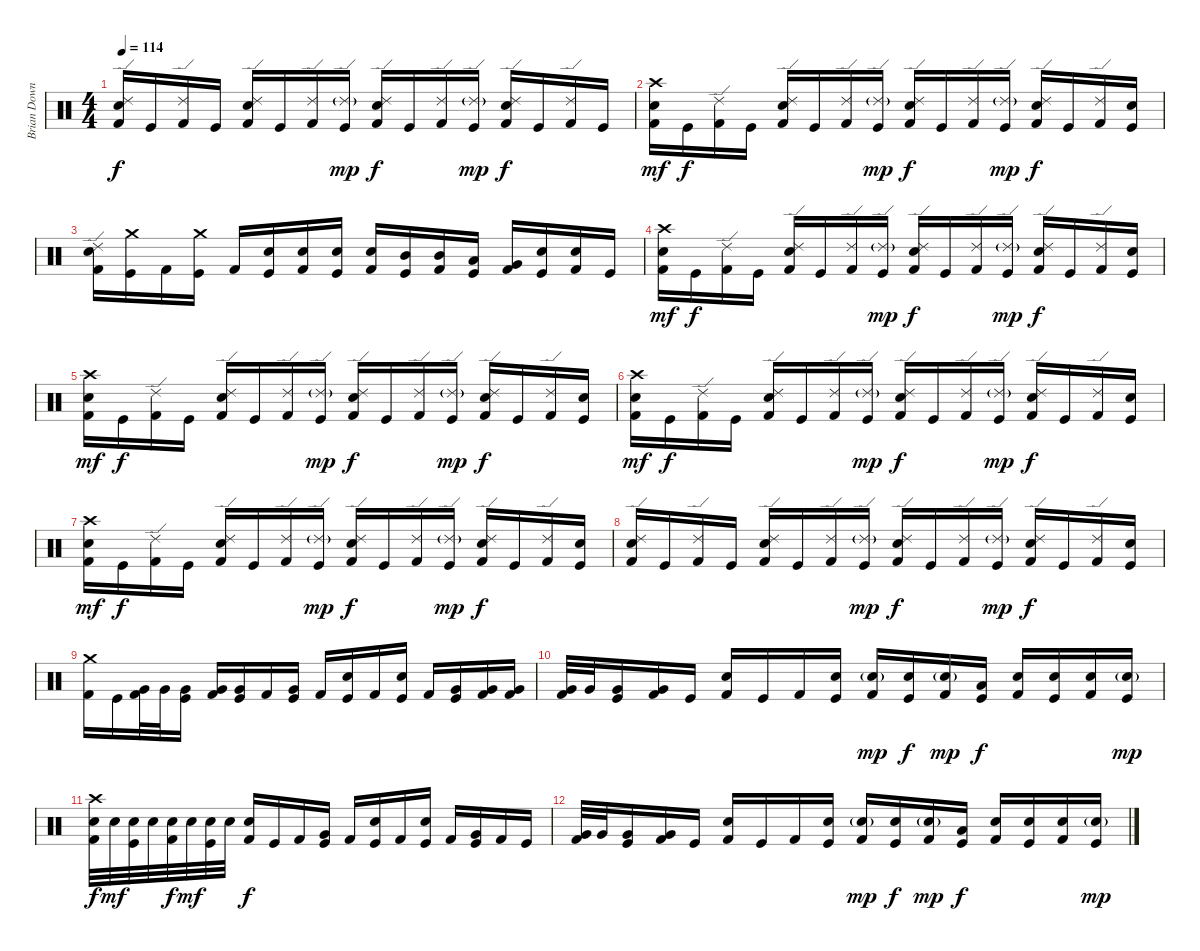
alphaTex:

\track ("Brian Downey" "Brian Down") {instrument percussion}
\staff {score}
\articulation defaults
\ts (4 4)
\tempo 114
\clef neutral
\ks c
("Ride (edge) 2" "Electric Snare (hit)" "Kick (hit) 2").16{dy f} "Kick (hit)".16 ("Ride (edge) 2" "Kick (hit) 2").16 "Kick (hit)".16 ("Ride (edge) 2" "Electric Snare (hit)" "Kick (hit) 2").16 "Kick (hit)".16 ("Ride (edge) 2" "Kick (hit) 2").16 ("Ride (edge) 2"{g} "Kick (hit)").16{dy mp} ("Ride (edge) 2" "Electric Snare (hit)" "Kick (hit) 2").16{dy f} "Kick (hit)".16 ("Ride (edge) 2" "Kick (hit) 2").16 ("Ride (edge) 2"{g} "Kick (hit)").16{dy mp} ("Ride (edge) 2" "Electric Snare (hit)" "Kick (hit) 2").16{dy f} "Kick (hit)".16 ("Ride (edge) 2" "Kick (hit) 2").16 "Kick (hit)".16 |
("Crash high (hit)" "Electric Snare (hit)" "Kick (hit) 2").16{dy mf} "Kick (hit)".16{dy f} ("Ride (edge) 2" "Kick (hit) 2").16 "Kick (hit)".16 ("Ride (edge) 2" "Electric Snare (hit)" "Kick (hit) 2").16 "Kick (hit)".16 ("Ride (edge) 2" "Kick (hit) 2").16 ("Ride (edge) 2"{g} "Kick (hit)").16{dy mp} ("Ride (edge) 2" "Electric Snare (hit)" "Kick (hit) 2").16{dy f} "Kick (hit)".16 ("Ride (edge) 2" "Kick (hit) 2").16 ("Ride (edge) 2"{g} "Kick (hit)").16{dy mp} ("Ride (edge) 2" "Electric Snare (hit)" "Kick (hit) 2").16{dy f} "Kick (hit)".16 ("Ride (edge) 2" "Kick (hit) 2").16 ("Electric Snare (hit)" "Kick (hit)").16 |
("Ride (edge) 2" "Electric Snare (hit)" "Kick (hit) 2").16 ("Crash medium (hit)" "Kick (hit)").16 "Kick (hit) 2".16 ("Crash medium (hit)" "Kick (hit)").16 "Kick (hit) 2".16 ("Electric Snare (hit)" "Kick (hit)").16 ("Electric Snare (hit)" "Kick (hit) 2").16 ("Electric Snare (hit)" "Kick (hit)").16 ("Electric Snare (hit)" "Kick (hit) 2").16 ("Mid Tom (hit)" "Kick (hit)").16 ("Mid Tom (hit)" "Kick (hit) 2").16 ("Low Tom (hit)" "Kick (hit)").16 ("Very Low Tom (hit)" "Kick (hit) 2").16 ("Electric Snare (hit)" "Kick (hit)").16 ("Electric Snare (hit)" "Kick (hit) 2").16 "Kick (hit)".16 |
("Crash high (hit)" "Electric Snare (hit)" "Kick (hit) 2").16{dy mf} "Kick (hit)".16{dy f} ("Ride (edge) 2" "Kick (hit) 2").16 "Kick (hit)".16 ("Ride (edge) 2" "Electric Snare (hit)" "Kick (hit) 2").16 "Kick (hit)".16 ("Ride (edge) 2" "Kick (hit) 2").16 ("Ride (edge) 2"{g} "Kick (hit)").16{dy mp} ("Ride (edge) 2" "Electric Snare (hit)" "Kick (hit) 2").16{dy f} "Kick (hit)".16 ("Ride (edge) 2" "Kick (hit) 2").16 ("Ride (edge) 2"{g} "Kick (hit)").16{dy mp} ("Ride (edge) 2" "Electric Snare (hit)" "Kick (hit) 2").16{dy f} "Kick (hit)".16 ("Ride (edge) 2" "Kick (hit) 2").16 ("Electric Snare (hit)" "Kick (hit)").16 |
("Crash high (hit)" "Electric Snare (hit)" "Kick (hit) 2").16{dy mf} "Kick (hit)".16{dy f} ("Ride (edge) 2" "Kick (hit) 2").16 "Kick (hit)".16 ("Ride (edge) 2" "Electric Snare (hit)" "Kick (hit) 2").16 "Kick (hit)".16 ("Ride (edge) 2" "Kick (hit) 2").16 ("Ride (edge) 2"{g} "Kick (hit)").16{dy mp} ("Ride (edge) 2" "Electric Snare (hit)" "Kick (hit) 2").16{dy f} "Kick (hit)".16 ("Ride (edge) 2" "Kick (hit) 2").16 ("Ride (edge) 2"{g} "Kick (hit)").16{dy mp} ("Ride (edge) 2" "Electric Snare (hit)" "Kick (hit) 2").16{dy f} "Kick (hit)".16 ("Ride (edge) 2" "Kick (hit) 2").16 ("Electric Snare (hit)" "Kick (hit)").16 |
("Crash high (hit)" "Electric Snare (hit)" "Kick (hit) 2").16{dy mf} "Kick (hit)".16{dy f} ("Ride (edge) 2" "Kick (hit) 2").16 "Kick (hit)".16 ("Ride (edge) 2" "Electric Snare (hit)" "Kick (hit) 2").16 "Kick (hit)".16 ("Ride (edge) 2" "Kick (hit) 2").16 ("Ride (edge) 2"{g} "Kick (hit)").16{dy mp} ("Ride (edge) 2" "Electric Snare (hit)" "Kick (hit) 2").16{dy f} "Kick (hit)".16 ("Ride (edge) 2" "Kick (hit) 2").16 ("Ride (edge) 2"{g} "Kick (hit)").16{dy mp} ("Ride (edge) 2" "Electric Snare (hit)" "Kick (hit) 2").16{dy f} "Kick (hit)".16 ("Ride (edge) 2" "Kick (hit) 2").16 ("Electric Snare (hit)" "Kick (hit)").16 |
("Crash high (hit)" "Electric Snare (hit)" "Kick (hit) 2").16{dy mf} "Kick (hit)".16{dy f} ("Ride (edge) 2" "Kick (hit) 2").16 "Kick (hit)".16 ("Ride (edge) 2" "Electric Snare (hit)" "Kick (hit) 2").16 "Kick (hit)".16 ("Ride (edge) 2" "Kick (hit) 2").16 ("Ride (edge) 2"{g} "Kick (hit)").16{dy mp} ("Ride (edge) 2" "Electric Snare (hit)" "Kick (hit) 2").16{dy f} "Kick (hit)".16 ("Ride (edge) 2" "Kick (hit) 2").16 ("Ride (edge) 2"{g} "Kick (hit)").16{dy mp} ("Ride (edge) 2" "Electric Snare (hit)" "Kick (hit) 2").16{dy f} "Kick (hit)".16 ("Ride (edge) 2" "Kick (hit) 2").16 ("Electric Snare (hit)" "Kick (hit)").16 |
("Ride (edge) 2" "Electric Snare (hit)" "Kick (hit) 2").16 "Kick (hit)".16 ("Ride (edge) 2" "Kick (hit) 2").16 "Kick (hit)".16 ("Ride (edge) 2" "Electric Snare (hit)" "Kick (hit) 2").16 "Kick (hit)".16 ("Ride (edge) 2" "Kick (hit) 2").16 ("Ride (edge) 2"{g} "Kick (hit)").16{dy mp} ("Ride (edge) 2" "Electric Snare (hit)" "Kick (hit) 2").16{dy f} "Kick (hit)".16 ("Ride (edge) 2" "Kick (hit) 2").16 ("Ride (edge) 2"{g} "Kick (hit)").16{dy mp} ("Ride (edge) 2" "Electric Snare (hit)" "Kick (hit) 2").16{dy f} "Kick (hit)".16 ("Ride (edge) 2" "Kick (hit) 2").16 ("Electric Snare (hit)" "Kick (hit)").16 |
("Crash medium (hit)" "Kick (hit) 2").16{volume 0} "Kick (hit)".16 ("Very Low Tom (hit)" "Kick (hit) 2").32 "Very Low Tom (hit)".32 ("Very Low Tom (hit)" "Kick (hit)").16 ("Very Low Tom (hit)" "Kick (hit) 2").16 ("Very Low Tom (hit)" "Kick (hit)").16 "Kick (hit) 2".16 ("Very Low Tom (hit)" "Kick (hit)").16 "Kick (hit) 2".16 ("Electric Snare (hit)" "Kick (hit)").16 "Kick (hit) 2".16 ("Electric Snare (hit)" "Kick (hit)").16 "Kick (hit) 2".16 ("Very Low Tom (hit)" "Kick (hit)").16 ("Very Low Tom (hit)" "Kick (hit) 2").16 ("Very Low Tom (hit)" "Kick (hit) 2").16 |
("Very Low Tom (hit)" "Kick (hit) 2").32 "Very Low Tom (hit)".32 ("Very Low Tom (hit)" "Kick (hit)").16 ("Very Low Tom (hit)" "Kick (hit) 2").16 "Kick (hit)".16 ("Electric Snare (hit)" "Kick (hit) 2").16 "Kick (hit)".16 "Kick (hit) 2".16 ("Electric Snare (hit)" "Kick (hit)").16 ("Electric Snare (hit)"{g} "Kick (hit) 2").16{dy mp} ("Electric Snare (hit)" "Kick (hit)").16{dy f} ("Electric Snare (hit)"{g} "Kick (hit) 2").16{dy mp} ("Low Tom (hit)" "Kick (hit)").16{dy f} ("Electric Snare (hit)" "Kick (hit) 2").16 ("Electric Snare (hit)" "Kick (hit)").16 ("Electric Snare (hit)" "Kick (hit) 2").16 ("Electric Snare (hit)"{g} "Kick (hit)").16{dy mp} |
("Crash high (hit)" "Electric Snare (hit)" "Kick (hit) 2").32{dy f} "Electric Snare (hit)".32{dy mf} ("Electric Snare (hit)" "Kick (hit)").32 "Electric Snare (hit)".32 ("Electric Snare (hit)" "Kick (hit) 2").32{dy f} "Electric Snare (hit)".32{dy mf} ("Electric Snare (hit)" "Kick (hit)").32 "Electric Snare (hit)".32 ("Electric Snare (hit)" "Kick (hit) 2").16{dy f} "Kick (hit)".16 "Kick (hit) 2".16 ("Very Low Tom (hit)" "Kick (hit)").16 "Kick (hit) 2".16 ("Electric Snare (hit)" "Kick (hit)").16 "Kick (hit) 2".16 ("Electric Snare (hit)" "Kick (hit)").16 "Kick (hit) 2".16 ("Very Low Tom (hit)" "Kick (hit)").16 "Kick (hit) 2".16 "Kick (hit)".16 |
("Very Low Tom (hit)" "Kick (hit) 2").32 "Very Low Tom (hit)".32 ("Very Low Tom (hit)" "Kick (hit)").16 ("Very Low Tom (hit)" "Kick (hit) 2").16 "Kick (hit)".16 ("Electric Snare (hit)" "Kick (hit) 2").16 "Kick (hit)".16 "Kick (hit) 2".16 ("Electric Snare (hit)" "Kick (hit)").16 ("Electric Snare (hit)"{g} "Kick (hit) 2").16{dy mp} ("Electric Snare (hit)" "Kick (hit)").16{dy f} ("Electric Snare (hit)"{g} "Kick (hit) 2").16{dy mp} ("Low Tom (hit)" "Kick (hit)").16{dy f} ("Electric Snare (hit)" "Kick (hit) 2").16 ("Electric Snare (hit)" "Kick (hit)").16 ("Electric Snare (hit)" "Kick (hit) 2").16 ("Electric Snare (hit)"{g} "Kick (hit)").16{dy mp}
